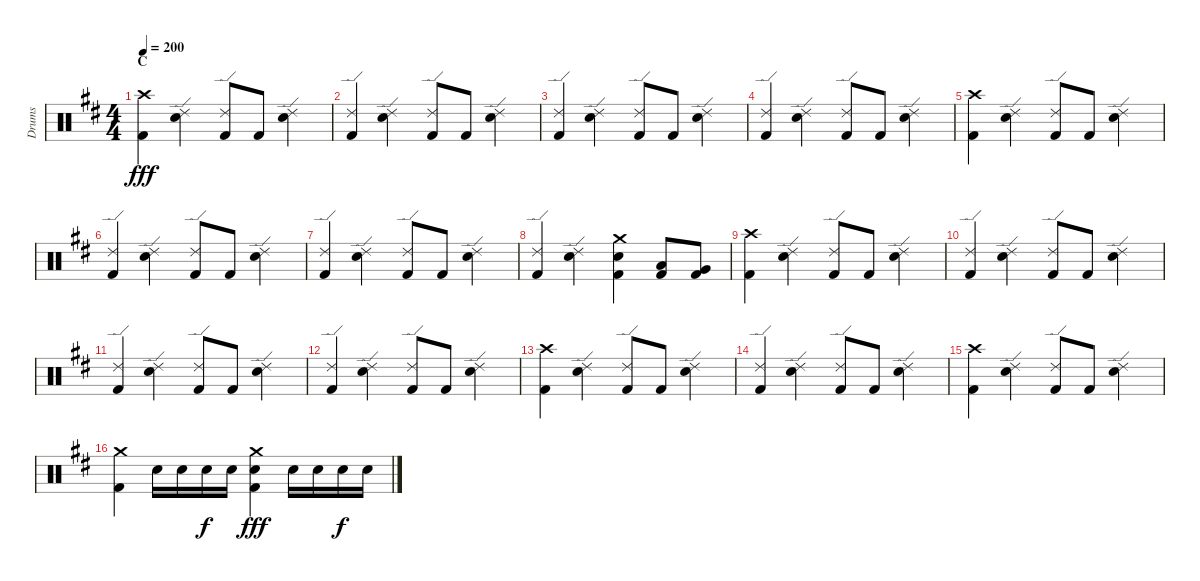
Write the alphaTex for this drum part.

\track ("Drums" "Drums") {instrument percussion}
\staff {score}
\articulation defaults
\ts (4 4)
\section ("" "C")
\tempo 200
\clef neutral
\ks d
("Crash high (hit)" "Kick (hit) 2").4{dy fff} ("Ride (edge) 2" "Snare (hit) 2").4 ("Ride (edge) 2" "Kick (hit) 2").8 "Kick (hit) 2".8 ("Ride (edge) 2" "Snare (hit) 2").4 |
("Ride (edge) 2" "Kick (hit) 2").4 ("Ride (edge) 2" "Snare (hit) 2").4 ("Ride (edge) 2" "Kick (hit) 2").8 "Kick (hit) 2".8 ("Ride (edge) 2" "Snare (hit) 2").4 |
("Ride (edge) 2" "Kick (hit) 2").4 ("Ride (edge) 2" "Snare (hit) 2").4 ("Ride (edge) 2" "Kick (hit) 2").8 "Kick (hit) 2".8 ("Ride (edge) 2" "Snare (hit) 2").4 |
("Ride (edge) 2" "Kick (hit) 2").4 ("Ride (edge) 2" "Snare (hit) 2").4 ("Ride (edge) 2" "Kick (hit) 2").8 "Kick (hit) 2".8 ("Ride (edge) 2" "Snare (hit) 2").4 |
("Crash high (hit)" "Kick (hit) 2").4 ("Ride (edge) 2" "Snare (hit) 2").4 ("Ride (edge) 2" "Kick (hit) 2").8 "Kick (hit) 2".8 ("Ride (edge) 2" "Snare (hit) 2").4 |
("Ride (edge) 2" "Kick (hit) 2").4 ("Ride (edge) 2" "Snare (hit) 2").4 ("Ride (edge) 2" "Kick (hit) 2").8 "Kick (hit) 2".8 ("Ride (edge) 2" "Snare (hit) 2").4 |
("Ride (edge) 2" "Kick (hit) 2").4 ("Ride (edge) 2" "Snare (hit) 2").4 ("Ride (edge) 2" "Kick (hit) 2").8 "Kick (hit) 2".8 ("Ride (edge) 2" "Snare (hit) 2").4 |
("Ride (edge) 2" "Kick (hit) 2").4 ("Ride (edge) 2" "Snare (hit) 2").4 ("Crash medium (hit)" "Snare (hit) 2" "Kick (hit) 2").4 ("Low Tom (hit)" "Kick (hit) 2").8 ("Very Low Tom (hit)" "Kick (hit) 2").8 |
("Crash high (hit)" "Kick (hit) 2").4 ("Ride (edge) 2" "Snare (hit) 2").4 ("Ride (edge) 2" "Kick (hit) 2").8 "Kick (hit) 2".8 ("Ride (edge) 2" "Snare (hit) 2").4 |
("Ride (edge) 2" "Kick (hit) 2").4 ("Ride (edge) 2" "Snare (hit) 2").4 ("Ride (edge) 2" "Kick (hit) 2").8 "Kick (hit) 2".8 ("Ride (edge) 2" "Snare (hit) 2").4 |
("Ride (edge) 2" "Kick (hit) 2").4 ("Ride (edge) 2" "Snare (hit) 2").4 ("Ride (edge) 2" "Kick (hit) 2").8 "Kick (hit) 2".8 ("Ride (edge) 2" "Snare (hit) 2").4 |
("Ride (edge) 2" "Kick (hit) 2").4 ("Ride (edge) 2" "Snare (hit) 2").4 ("Ride (edge) 2" "Kick (hit) 2").8 "Kick (hit) 2".8 ("Ride (edge) 2" "Snare (hit) 2").4 |
("Crash high (hit)" "Kick (hit) 2").4 ("Ride (edge) 2" "Snare (hit) 2").4 ("Ride (edge) 2" "Kick (hit) 2").8 "Kick (hit) 2".8 ("Ride (edge) 2" "Snare (hit) 2").4 |
("Ride (edge) 2" "Kick (hit) 2").4 ("Ride (edge) 2" "Snare (hit) 2").4 ("Ride (edge) 2" "Kick (hit) 2").8 "Kick (hit) 2".8 ("Ride (edge) 2" "Snare (hit) 2").4 |
("Crash high (hit)" "Kick (hit) 2").4 ("Ride (edge) 2" "Snare (hit) 2").4 ("Ride (edge) 2" "Kick (hit) 2").8 "Kick (hit) 2".8 ("Ride (edge) 2" "Snare (hit) 2").4 |
("Crash medium (hit)" "Kick (hit) 2").4 "Snare (hit) 2".16 "Snare (hit) 2".16 "Snare (hit) 2".16{dy f} "Snare (hit) 2".16 ("Crash medium (hit)" "Snare (hit) 2" "Kick (hit) 2").4{dy fff} "Snare (hit) 2".16 "Snare (hit) 2".16 "Snare (hit) 2".16{dy f} "Snare (hit) 2".16
